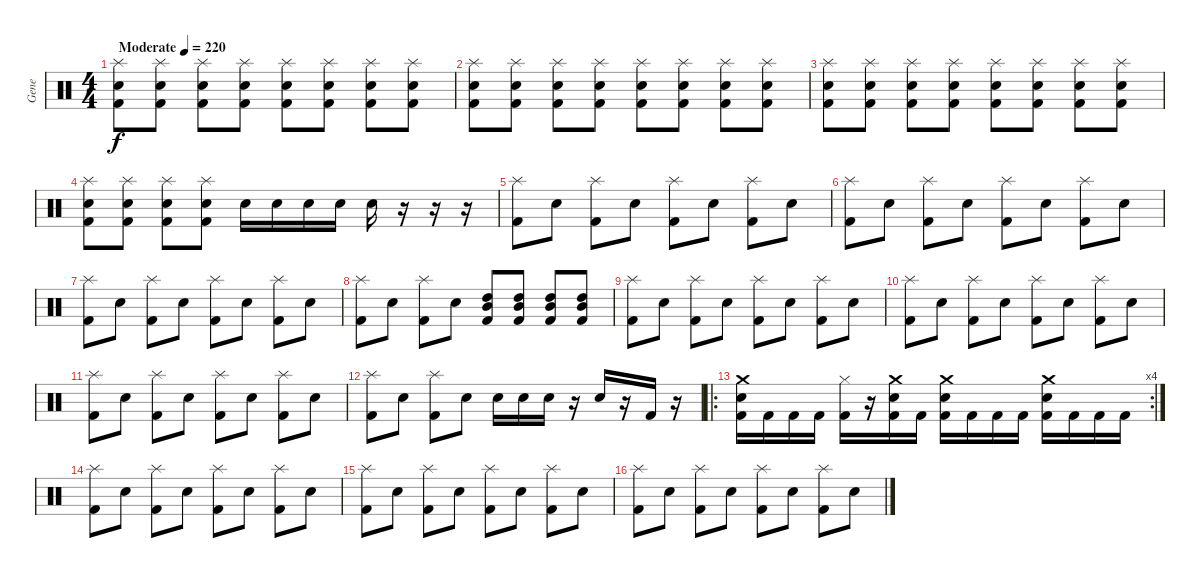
\track ("Gene" "Gene") {instrument percussion}
\staff {score}
\articulation defaults
\ts (4 4)
\tempo (220 "Moderate")
\clef neutral
\ks c
("Splash (hit)" "Electric Snare (hit)" "Kick (hit) 2").8{dy f} ("Splash (hit)" "Electric Snare (hit)" "Kick (hit) 2").8 ("Splash (hit)" "Electric Snare (hit)" "Kick (hit) 2").8 ("Splash (hit)" "Electric Snare (hit)" "Kick (hit) 2").8 ("Splash (hit)" "Electric Snare (hit)" "Kick (hit) 2").8 ("Splash (hit)" "Electric Snare (hit)" "Kick (hit) 2").8 ("Splash (hit)" "Electric Snare (hit)" "Kick (hit) 2").8 ("Splash (hit)" "Electric Snare (hit)" "Kick (hit) 2").8 |
("Splash (hit)" "Electric Snare (hit)" "Kick (hit) 2").8 ("Splash (hit)" "Electric Snare (hit)" "Kick (hit) 2").8 ("Splash (hit)" "Electric Snare (hit)" "Kick (hit) 2").8 ("Splash (hit)" "Electric Snare (hit)" "Kick (hit) 2").8 ("Splash (hit)" "Electric Snare (hit)" "Kick (hit) 2").8 ("Splash (hit)" "Electric Snare (hit)" "Kick (hit) 2").8 ("Splash (hit)" "Electric Snare (hit)" "Kick (hit) 2").8 ("Splash (hit)" "Electric Snare (hit)" "Kick (hit) 2").8 |
("Splash (hit)" "Electric Snare (hit)" "Kick (hit) 2").8 ("Splash (hit)" "Electric Snare (hit)" "Kick (hit) 2").8 ("Splash (hit)" "Electric Snare (hit)" "Kick (hit) 2").8 ("Splash (hit)" "Electric Snare (hit)" "Kick (hit) 2").8 ("Splash (hit)" "Electric Snare (hit)" "Kick (hit) 2").8 ("Splash (hit)" "Electric Snare (hit)" "Kick (hit) 2").8 ("Splash (hit)" "Electric Snare (hit)" "Kick (hit) 2").8 ("Splash (hit)" "Electric Snare (hit)" "Kick (hit) 2").8 |
("Splash (hit)" "Electric Snare (hit)" "Kick (hit) 2").8 ("Splash (hit)" "Electric Snare (hit)" "Kick (hit) 2").8 ("Splash (hit)" "Electric Snare (hit)" "Kick (hit) 2").8 ("Splash (hit)" "Electric Snare (hit)" "Kick (hit) 2").8 "Electric Snare (hit)".16 "Electric Snare (hit)".16 "Electric Snare (hit)".16 "Electric Snare (hit)".16 "Electric Snare (hit)".16 r.16 r.16 r.16 |
("Splash (hit)" "Kick (hit) 2").8 "Electric Snare (hit)".8 ("Splash (hit)" "Kick (hit) 2").8 "Electric Snare (hit)".8 ("Splash (hit)" "Kick (hit) 2").8 "Electric Snare (hit)".8 ("Splash (hit)" "Kick (hit) 2").8 "Electric Snare (hit)".8 |
("Splash (hit)" "Kick (hit) 2").8 "Electric Snare (hit)".8 ("Splash (hit)" "Kick (hit) 2").8 "Electric Snare (hit)".8 ("Splash (hit)" "Kick (hit) 2").8 "Electric Snare (hit)".8 ("Splash (hit)" "Kick (hit) 2").8 "Electric Snare (hit)".8 |
("Splash (hit)" "Kick (hit) 2").8 "Electric Snare (hit)".8 ("Splash (hit)" "Kick (hit) 2").8 "Electric Snare (hit)".8 ("Splash (hit)" "Kick (hit) 2").8 "Electric Snare (hit)".8 ("Splash (hit)" "Kick (hit) 2").8 "Electric Snare (hit)".8 |
("Splash (hit)" "Kick (hit) 2").8 "Electric Snare (hit)".8 ("Splash (hit)" "Kick (hit) 2").8 "Electric Snare (hit)".8 ("High Tom (hit)" "Mid Tom (hit)" "Kick (hit) 2").8 ("High Tom (hit)" "Mid Tom (hit)" "Kick (hit) 2").8 ("High Tom (hit)" "Mid Tom (hit)" "Kick (hit) 2").8 ("High Tom (hit)" "Mid Tom (hit)" "Kick (hit) 2").8 |
("Splash (hit)" "Kick (hit) 2").8 "Electric Snare (hit)".8 ("Splash (hit)" "Kick (hit) 2").8 "Electric Snare (hit)".8 ("Splash (hit)" "Kick (hit) 2").8 "Electric Snare (hit)".8 ("Splash (hit)" "Kick (hit) 2").8 "Electric Snare (hit)".8 |
("Splash (hit)" "Kick (hit) 2").8 "Electric Snare (hit)".8 ("Splash (hit)" "Kick (hit) 2").8 "Electric Snare (hit)".8 ("Splash (hit)" "Kick (hit) 2").8 "Electric Snare (hit)".8 ("Splash (hit)" "Kick (hit) 2").8 "Electric Snare (hit)".8 |
("Splash (hit)" "Kick (hit) 2").8 "Electric Snare (hit)".8 ("Splash (hit)" "Kick (hit) 2").8 "Electric Snare (hit)".8 ("Splash (hit)" "Kick (hit) 2").8 "Electric Snare (hit)".8 ("Splash (hit)" "Kick (hit) 2").8 "Electric Snare (hit)".8 |
("Splash (hit)" "Kick (hit) 2").8 "Electric Snare (hit)".8 ("Splash (hit)" "Kick (hit) 2").8 "Electric Snare (hit)".8 "Electric Snare (hit)".16 "Electric Snare (hit)".16 "Electric Snare (hit)".16 r.16 "Electric Snare (hit)".16 r.16 "Kick (hit) 2".16 r.16 |
\ro
\rc 4
("Crash medium (hit)" "Electric Snare (hit)" "Kick (hit) 2").16 "Kick (hit) 2".16 "Kick (hit) 2".16 "Kick (hit) 2".16 ("Hi-Hat (closed)" "Kick (hit) 2").16 r.16 ("Crash medium (hit)" "Electric Snare (hit)" "Kick (hit) 2").16 "Kick (hit) 2".16 ("Crash medium (hit)" "Electric Snare (hit)" "Kick (hit) 2").16 "Kick (hit) 2".16 "Kick (hit) 2".16 "Kick (hit) 2".16 ("Crash medium (hit)" "Electric Snare (hit)" "Kick (hit) 2").16 "Kick (hit) 2".16 "Kick (hit) 2".16 "Kick (hit) 2".16 |
("Splash (hit)" "Kick (hit) 2").8 "Electric Snare (hit)".8 ("Splash (hit)" "Kick (hit) 2").8 "Electric Snare (hit)".8 ("Splash (hit)" "Kick (hit) 2").8 "Electric Snare (hit)".8 ("Splash (hit)" "Kick (hit) 2").8 "Electric Snare (hit)".8 |
("Splash (hit)" "Kick (hit) 2").8 "Electric Snare (hit)".8 ("Splash (hit)" "Kick (hit) 2").8 "Electric Snare (hit)".8 ("Splash (hit)" "Kick (hit) 2").8 "Electric Snare (hit)".8 ("Splash (hit)" "Kick (hit) 2").8 "Electric Snare (hit)".8 |
("Splash (hit)" "Kick (hit) 2").8 "Electric Snare (hit)".8 ("Splash (hit)" "Kick (hit) 2").8 "Electric Snare (hit)".8 ("Splash (hit)" "Kick (hit) 2").8 "Electric Snare (hit)".8 ("Splash (hit)" "Kick (hit) 2").8 "Electric Snare (hit)".8
